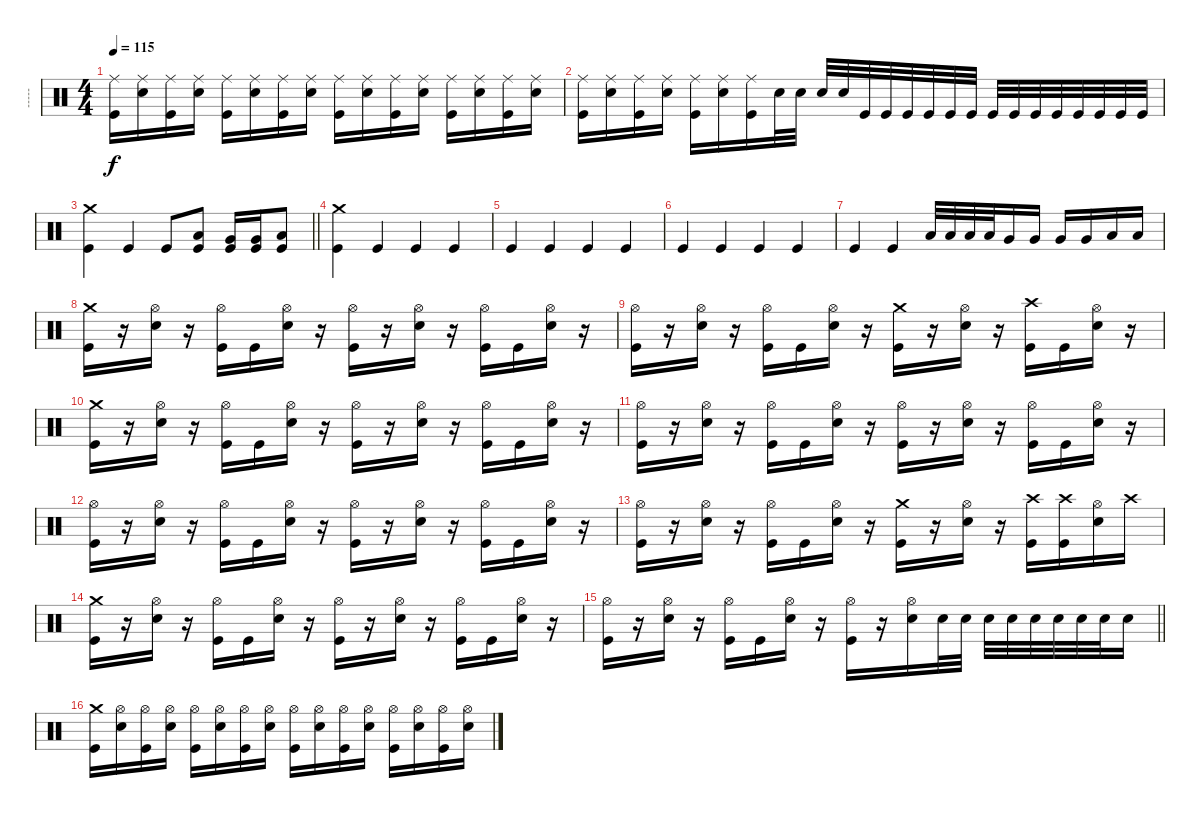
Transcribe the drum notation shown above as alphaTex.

\track ("-----" "-----") {instrument percussion}
\staff {score}
\articulation defaults
\ts (4 4)
\tempo 115
\clef neutral
\ks c
("Ride (middle)" "Kick (hit)").16{dy f} ("Ride (middle)" "Electric Snare (hit)").16 ("Ride (middle)" "Kick (hit)").16 ("Ride (middle)" "Electric Snare (hit)").16 ("Ride (middle)" "Kick (hit)").16 ("Ride (middle)" "Electric Snare (hit)").16 ("Ride (middle)" "Kick (hit)").16 ("Ride (middle)" "Electric Snare (hit)").16 ("Ride (middle)" "Kick (hit)").16 ("Ride (middle)" "Electric Snare (hit)").16 ("Ride (middle)" "Kick (hit)").16 ("Ride (middle)" "Electric Snare (hit)").16 ("Ride (middle)" "Kick (hit)").16 ("Ride (middle)" "Electric Snare (hit)").16 ("Ride (middle)" "Kick (hit)").16 ("Ride (middle)" "Electric Snare (hit)").16 |
("Ride (middle)" "Kick (hit)").16 ("Ride (middle)" "Electric Snare (hit)").16 ("Ride (middle)" "Kick (hit)").16 ("Ride (middle)" "Electric Snare (hit)").16 ("Ride (middle)" "Kick (hit)").16 ("Ride (middle)" "Electric Snare (hit)").16 ("Ride (middle)" "Kick (hit)").16 "Electric Snare (hit)".32 "Electric Snare (hit)".32 "Electric Snare (hit)".32 "Electric Snare (hit)".32 "Kick (hit)".32 "Kick (hit)".32 "Kick (hit)".32 "Kick (hit)".32 "Kick (hit)".32 "Kick (hit)".32 "Kick (hit)".32 "Kick (hit)".32 "Kick (hit)".32 "Kick (hit)".32 "Kick (hit)".32 "Kick (hit)".32 "Kick (hit)".32 "Kick (hit)".32 |
\barLineRight lightlight
("Crash medium (hit)" "Kick (hit)").4 "Kick (hit)".4 "Kick (hit)".8 ("Low Tom (hit)" "Kick (hit)").8 ("Very Low Tom (hit)" "Kick (hit)").16 ("Very Low Tom (hit)" "Kick (hit)").16 ("Low Floor Tom (hit)" "Kick (hit)").8 |
\section ("" "")
("Crash medium (hit)" "Kick (hit)").4 "Kick (hit)".4 "Kick (hit)".4 "Kick (hit)".4 |
"Kick (hit)".4 "Kick (hit)".4 "Kick (hit)".4 "Kick (hit)".4 |
"Kick (hit)".4 "Kick (hit)".4 "Kick (hit)".4 "Kick (hit)".4 |
"Kick (hit)".4 "Kick (hit)".4 "Low Tom (hit)".32 "Low Tom (hit)".32 "Low Tom (hit)".32 "Low Tom (hit)".32 "Very Low Tom (hit)".16 "Very Low Tom (hit)".16 "Very Low Tom (hit)".16 "Very Low Tom (hit)".16 "Low Floor Tom (hit)".16 "Low Floor Tom (hit)".16 |
("Crash medium (hit)" "Kick (hit)").16 r.16 ("Hi-Hat (open)" "Electric Snare (hit)").16 r.16 ("Hi-Hat (open)" "Kick (hit)").16 "Kick (hit)".16 ("Hi-Hat (open)" "Electric Snare (hit)").16 r.16 ("Hi-Hat (open)" "Kick (hit)").16 r.16 ("Hi-Hat (open)" "Electric Snare (hit)").16 r.16 ("Hi-Hat (open)" "Kick (hit)").16 "Kick (hit)".16 ("Hi-Hat (open)" "Electric Snare (hit)").16 r.16 |
("Hi-Hat (open)" "Kick (hit)").16 r.16 ("Hi-Hat (open)" "Electric Snare (hit)").16 r.16 ("Hi-Hat (open)" "Kick (hit)").16 "Kick (hit)".16 ("Hi-Hat (open)" "Electric Snare (hit)").16 r.16 ("Crash medium (hit)" "Kick (hit)").16 r.16 ("Hi-Hat (open)" "Electric Snare (hit)").16 r.16 ("Crash high (hit)" "Kick (hit)").16 "Kick (hit)".16 ("Hi-Hat (open)" "Electric Snare (hit)").16 r.16 |
("Crash medium (hit)" "Kick (hit)").16 r.16 ("Hi-Hat (open)" "Electric Snare (hit)").16 r.16 ("Hi-Hat (open)" "Kick (hit)").16 "Kick (hit)".16 ("Hi-Hat (open)" "Electric Snare (hit)").16 r.16 ("Hi-Hat (open)" "Kick (hit)").16 r.16 ("Hi-Hat (open)" "Electric Snare (hit)").16 r.16 ("Hi-Hat (open)" "Kick (hit)").16 "Kick (hit)".16 ("Hi-Hat (open)" "Electric Snare (hit)").16 r.16 |
("Hi-Hat (open)" "Kick (hit)").16 r.16 ("Hi-Hat (open)" "Electric Snare (hit)").16 r.16 ("Hi-Hat (open)" "Kick (hit)").16 "Kick (hit)".16 ("Hi-Hat (open)" "Electric Snare (hit)").16 r.16 ("Hi-Hat (open)" "Kick (hit)").16 r.16 ("Hi-Hat (open)" "Electric Snare (hit)").16 r.16 ("Hi-Hat (open)" "Kick (hit)").16 "Kick (hit)".16 ("Hi-Hat (open)" "Electric Snare (hit)").16 r.16 |
("Hi-Hat (open)" "Kick (hit)").16 r.16 ("Hi-Hat (open)" "Electric Snare (hit)").16 r.16 ("Hi-Hat (open)" "Kick (hit)").16 "Kick (hit)".16 ("Hi-Hat (open)" "Electric Snare (hit)").16 r.16 ("Hi-Hat (open)" "Kick (hit)").16 r.16 ("Hi-Hat (open)" "Electric Snare (hit)").16 r.16 ("Hi-Hat (open)" "Kick (hit)").16 "Kick (hit)".16 ("Hi-Hat (open)" "Electric Snare (hit)").16 r.16 |
("Hi-Hat (open)" "Kick (hit)").16 r.16 ("Hi-Hat (open)" "Electric Snare (hit)").16 r.16 ("Hi-Hat (open)" "Kick (hit)").16 "Kick (hit)".16 ("Hi-Hat (open)" "Electric Snare (hit)").16 r.16 ("Crash medium (hit)" "Kick (hit)").16 r.16 ("Hi-Hat (open)" "Electric Snare (hit)").16 r.16 ("Crash high (hit)" "Kick (hit)").16 ("Crash high (hit)" "Kick (hit)").16 ("Hi-Hat (open)" "Electric Snare (hit)").16 "Crash high (hit)".16 |
("Crash medium (hit)" "Kick (hit)").16 r.16 ("Hi-Hat (open)" "Electric Snare (hit)").16 r.16 ("Hi-Hat (open)" "Kick (hit)").16 "Kick (hit)".16 ("Hi-Hat (open)" "Electric Snare (hit)").16 r.16 ("Hi-Hat (open)" "Kick (hit)").16 r.16 ("Hi-Hat (open)" "Electric Snare (hit)").16 r.16 ("Hi-Hat (open)" "Kick (hit)").16 "Kick (hit)".16 ("Hi-Hat (open)" "Electric Snare (hit)").16 r.16 |
\barLineRight lightlight
("Hi-Hat (open)" "Kick (hit)").16 r.16 ("Hi-Hat (open)" "Electric Snare (hit)").16 r.16 ("Hi-Hat (open)" "Kick (hit)").16 "Kick (hit)".16 ("Hi-Hat (open)" "Electric Snare (hit)").16 r.16 ("Hi-Hat (open)" "Kick (hit)").16 r.16 ("Hi-Hat (open)" "Electric Snare (hit)").16 "Electric Snare (hit)".32 "Electric Snare (hit)".32 "Electric Snare (hit)".32 "Electric Snare (hit)".32 "Electric Snare (hit)".32 "Electric Snare (hit)".32 "Electric Snare (hit)".32 "Electric Snare (hit)".32 "Electric Snare (hit)".16 |
("Crash medium (hit)" "Kick (hit)").16 ("Hi-Hat (open)" "Electric Snare (hit)").16 ("Hi-Hat (open)" "Kick (hit)").16 ("Hi-Hat (open)" "Electric Snare (hit)").16 ("Hi-Hat (open)" "Kick (hit)").16 ("Hi-Hat (open)" "Electric Snare (hit)").16 ("Hi-Hat (open)" "Kick (hit)").16 ("Hi-Hat (open)" "Electric Snare (hit)").16 ("Hi-Hat (open)" "Kick (hit)").16 ("Hi-Hat (open)" "Electric Snare (hit)").16 ("Hi-Hat (open)" "Kick (hit)").16 ("Hi-Hat (open)" "Electric Snare (hit)").16 ("Hi-Hat (open)" "Kick (hit)").16 ("Hi-Hat (open)" "Electric Snare (hit)").16 ("Hi-Hat (open)" "Kick (hit)").16 ("Hi-Hat (open)" "Electric Snare (hit)").16
